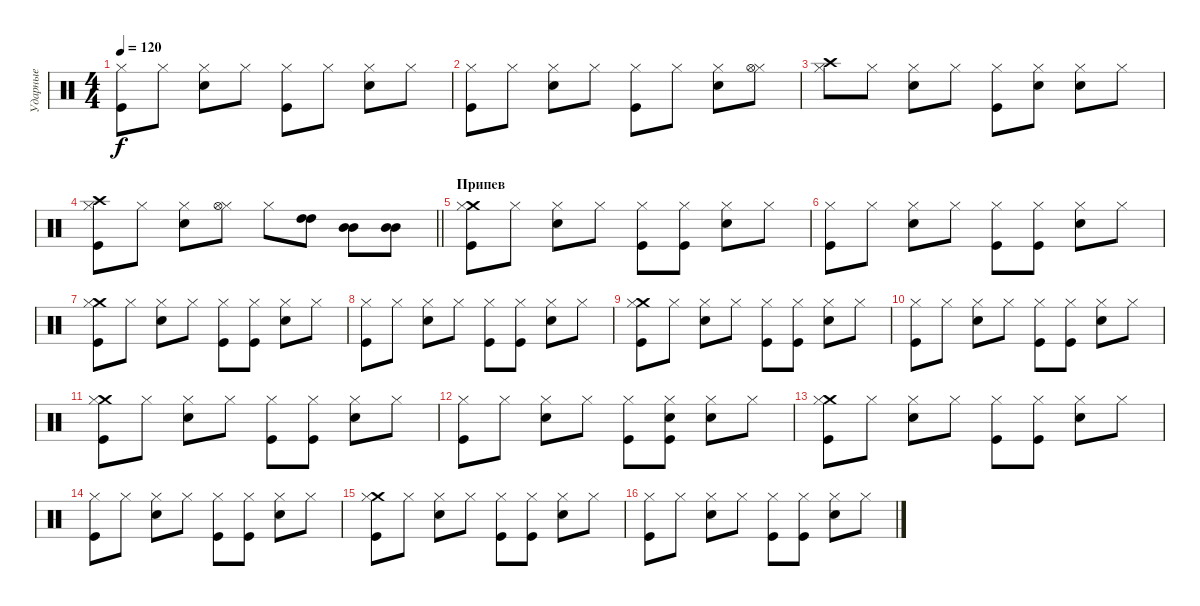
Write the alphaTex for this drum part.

\track ("Ударные" "Ударные") {instrument percussion}
\staff {score}
\articulation defaults
\ts (4 4)
\tempo 120
\clef neutral
\ks c
("Kick (hit)" "Hi-Hat (closed)").8{dy f} "Hi-Hat (closed)".8 ("Snare (hit) 2" "Hi-Hat (closed)").8 "Hi-Hat (closed)".8 ("Kick (hit)" "Hi-Hat (closed)").8 "Hi-Hat (closed)".8 ("Snare (hit) 2" "Hi-Hat (closed)").8 "Hi-Hat (closed)".8 |
("Hi-Hat (closed)" "Kick (hit)").8 "Hi-Hat (closed)".8 ("Snare (hit) 2" "Hi-Hat (closed)").8 "Hi-Hat (closed)".8 ("Kick (hit)" "Hi-Hat (closed)").8 "Hi-Hat (closed)".8 ("Snare (hit) 2" "Hi-Hat (closed)").8 ("Hi-Hat (closed)" "Hi-Hat (open)").8 |
("Hi-Hat (closed)" "Crash high (hit)").8 "Hi-Hat (closed)".8 ("Snare (hit) 2" "Hi-Hat (closed)").8 "Hi-Hat (closed)".8 ("Kick (hit)" "Hi-Hat (closed)").8 ("Snare (hit) 2" "Hi-Hat (closed)").8 ("Snare (hit) 2" "Hi-Hat (closed)").8 "Hi-Hat (closed)".8 |
\barLineRight lightlight
("Kick (hit)" "Hi-Hat (closed)" "Crash high (hit)").8 "Hi-Hat (closed)".8 ("Snare (hit) 2" "Hi-Hat (closed)").8 ("Hi-Hat (closed)" "Hi-Hat (open)").8 "Hi-Hat (closed)".8 ("High Tom (hit)" "High Tom (hit)").8 ("Mid Tom (hit)" "Mid Tom (hit)").8 ("Mid Tom (hit)" "Mid Tom (hit)").8 |
\section ("" "Припев")
("Crash medium (hit)" "Hi-Hat (closed)" "Kick (hit)").8 "Hi-Hat (closed)".8 ("Snare (hit) 2" "Hi-Hat (closed)").8 "Hi-Hat (closed)".8 ("Kick (hit)" "Hi-Hat (closed)").8 ("Kick (hit)" "Hi-Hat (closed)").8 ("Snare (hit) 2" "Hi-Hat (closed)").8 "Hi-Hat (closed)".8 |
("Kick (hit)" "Hi-Hat (closed)").8 "Hi-Hat (closed)".8 ("Snare (hit) 2" "Hi-Hat (closed)").8 "Hi-Hat (closed)".8 ("Kick (hit)" "Hi-Hat (closed)").8 ("Kick (hit)" "Hi-Hat (closed)").8 ("Snare (hit) 2" "Hi-Hat (closed)").8 "Hi-Hat (closed)".8 |
("Crash medium (hit)" "Hi-Hat (closed)" "Kick (hit)").8 "Hi-Hat (closed)".8 ("Snare (hit) 2" "Hi-Hat (closed)").8 "Hi-Hat (closed)".8 ("Kick (hit)" "Hi-Hat (closed)").8 ("Kick (hit)" "Hi-Hat (closed)").8 ("Snare (hit) 2" "Hi-Hat (closed)").8 "Hi-Hat (closed)".8 |
("Kick (hit)" "Hi-Hat (closed)").8 "Hi-Hat (closed)".8 ("Snare (hit) 2" "Hi-Hat (closed)").8 "Hi-Hat (closed)".8 ("Kick (hit)" "Hi-Hat (closed)").8 ("Kick (hit)" "Hi-Hat (closed)").8 ("Snare (hit) 2" "Hi-Hat (closed)").8 "Hi-Hat (closed)".8 |
("Crash medium (hit)" "Hi-Hat (closed)" "Kick (hit)").8 "Hi-Hat (closed)".8 ("Snare (hit) 2" "Hi-Hat (closed)").8 "Hi-Hat (closed)".8 ("Kick (hit)" "Hi-Hat (closed)").8 ("Kick (hit)" "Hi-Hat (closed)").8 ("Snare (hit) 2" "Hi-Hat (closed)").8 "Hi-Hat (closed)".8 |
("Kick (hit)" "Hi-Hat (closed)").8 "Hi-Hat (closed)".8 ("Snare (hit) 2" "Hi-Hat (closed)").8 "Hi-Hat (closed)".8 ("Kick (hit)" "Hi-Hat (closed)").8 ("Kick (hit)" "Hi-Hat (closed)").8 ("Snare (hit) 2" "Hi-Hat (closed)").8 "Hi-Hat (closed)".8 |
("Crash medium (hit)" "Hi-Hat (closed)" "Kick (hit)").8 "Hi-Hat (closed)".8 ("Snare (hit) 2" "Hi-Hat (closed)").8 "Hi-Hat (closed)".8 ("Kick (hit)" "Hi-Hat (closed)").8 ("Kick (hit)" "Hi-Hat (closed)").8 ("Snare (hit) 2" "Hi-Hat (closed)").8 "Hi-Hat (closed)".8 |
("Kick (hit)" "Hi-Hat (closed)").8 "Hi-Hat (closed)".8 ("Snare (hit) 2" "Hi-Hat (closed)").8 "Hi-Hat (closed)".8 ("Kick (hit)" "Hi-Hat (closed)").8 ("Kick (hit)" "Hi-Hat (closed)" "Snare (hit) 2").8 ("Snare (hit) 2" "Hi-Hat (closed)").8 "Hi-Hat (closed)".8 |
("Crash medium (hit)" "Hi-Hat (closed)" "Kick (hit)").8 "Hi-Hat (closed)".8 ("Snare (hit) 2" "Hi-Hat (closed)").8 "Hi-Hat (closed)".8 ("Kick (hit)" "Hi-Hat (closed)").8 ("Kick (hit)" "Hi-Hat (closed)").8 ("Snare (hit) 2" "Hi-Hat (closed)").8 "Hi-Hat (closed)".8 |
("Kick (hit)" "Hi-Hat (closed)").8 "Hi-Hat (closed)".8 ("Snare (hit) 2" "Hi-Hat (closed)").8 "Hi-Hat (closed)".8 ("Kick (hit)" "Hi-Hat (closed)").8 ("Kick (hit)" "Hi-Hat (closed)").8 ("Snare (hit) 2" "Hi-Hat (closed)").8 "Hi-Hat (closed)".8 |
("Crash medium (hit)" "Hi-Hat (closed)" "Kick (hit)").8 "Hi-Hat (closed)".8 ("Snare (hit) 2" "Hi-Hat (closed)").8 "Hi-Hat (closed)".8 ("Kick (hit)" "Hi-Hat (closed)").8 ("Kick (hit)" "Hi-Hat (closed)").8 ("Snare (hit) 2" "Hi-Hat (closed)").8 "Hi-Hat (closed)".8 |
("Kick (hit)" "Hi-Hat (closed)").8 "Hi-Hat (closed)".8 ("Snare (hit) 2" "Hi-Hat (closed)").8 "Hi-Hat (closed)".8 ("Kick (hit)" "Hi-Hat (closed)").8 ("Kick (hit)" "Hi-Hat (closed)").8 ("Snare (hit) 2" "Hi-Hat (closed)").8 "Hi-Hat (closed)".8
